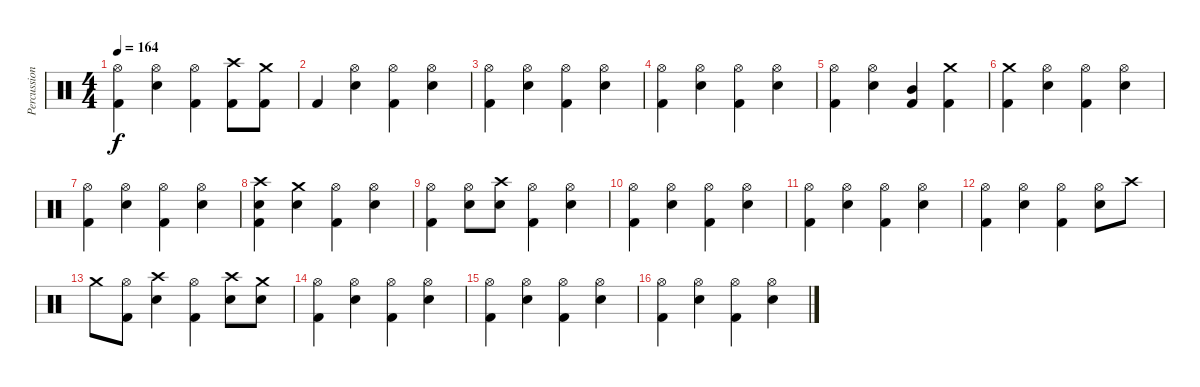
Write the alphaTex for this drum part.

\track ("Percussions" "Percussion") {instrument percussion}
\staff {score}
\articulation defaults
\ts (4 4)
\tempo 164
\clef neutral
\ks c
("Hi-Hat (open)" "Kick (hit) 2").4{dy f} ("Hi-Hat (open)" "Snare (hit) 2").4 ("Hi-Hat (open)" "Kick (hit) 2").4 ("Crash high (hit)" "Kick (hit) 2").8 ("Crash medium (hit)" "Kick (hit) 2").8 |
"Kick (hit) 2".4 ("Hi-Hat (open)" "Snare (hit) 2").4 ("Hi-Hat (open)" "Kick (hit) 2").4 ("Hi-Hat (open)" "Snare (hit) 2").4 |
("Hi-Hat (open)" "Kick (hit) 2").4 ("Hi-Hat (open)" "Snare (hit) 2").4 ("Hi-Hat (open)" "Kick (hit) 2").4 ("Hi-Hat (open)" "Snare (hit) 2").4 |
("Hi-Hat (open)" "Kick (hit) 2").4 ("Hi-Hat (open)" "Snare (hit) 2").4 ("Hi-Hat (open)" "Kick (hit) 2").4 ("Hi-Hat (open)" "Snare (hit) 2").4 |
("Hi-Hat (open)" "Kick (hit) 2").4 ("Hi-Hat (open)" "Snare (hit) 2").4 ("Mid Tom (hit)" "Kick (hit) 2").4 ("Crash medium (hit)" "Kick (hit) 2").4 |
("Crash medium (hit)" "Kick (hit) 2").4 ("Hi-Hat (open)" "Snare (hit) 2").4 ("Hi-Hat (open)" "Kick (hit) 2").4 ("Hi-Hat (open)" "Snare (hit) 2").4 |
("Hi-Hat (open)" "Kick (hit) 2").4 ("Hi-Hat (open)" "Snare (hit) 2").4 ("Hi-Hat (open)" "Kick (hit) 2").4 ("Hi-Hat (open)" "Snare (hit) 2").4 |
("Crash high (hit)" "Snare (hit) 2" "Kick (hit) 2").4 ("Crash medium (hit)" "Snare (hit) 2").4 ("Hi-Hat (open)" "Kick (hit) 2").4 ("Hi-Hat (open)" "Snare (hit) 2").4 |
("Hi-Hat (open)" "Kick (hit) 2").4 ("Hi-Hat (open)" "Snare (hit) 2").8 ("Crash high (hit)" "Snare (hit) 2").8 ("Hi-Hat (open)" "Kick (hit) 2").4 ("Hi-Hat (open)" "Snare (hit) 2").4 |
("Hi-Hat (open)" "Kick (hit) 2").4 ("Hi-Hat (open)" "Snare (hit) 2").4 ("Hi-Hat (open)" "Kick (hit) 2").4 ("Hi-Hat (open)" "Snare (hit) 2").4 |
("Hi-Hat (open)" "Kick (hit) 2").4 ("Hi-Hat (open)" "Snare (hit) 2").4 ("Hi-Hat (open)" "Kick (hit) 2").4 ("Hi-Hat (open)" "Snare (hit) 2").4 |
("Hi-Hat (open)" "Kick (hit) 2").4 ("Hi-Hat (open)" "Snare (hit) 2").4 ("Hi-Hat (open)" "Kick (hit) 2").4 ("Hi-Hat (open)" "Snare (hit) 2").8 "Crash high (hit)".8 |
"Crash medium (hit)".8 ("Hi-Hat (open)" "Kick (hit) 2").8 ("Crash high (hit)" "Snare (hit) 2").4 ("Hi-Hat (open)" "Kick (hit) 2").4 ("Crash high (hit)" "Snare (hit) 2").8 ("Crash medium (hit)" "Snare (hit) 2").8 |
("Hi-Hat (open)" "Kick (hit) 2").4 ("Hi-Hat (open)" "Snare (hit) 2").4 ("Hi-Hat (open)" "Kick (hit) 2").4 ("Hi-Hat (open)" "Snare (hit) 2").4 |
("Hi-Hat (open)" "Kick (hit) 2").4 ("Hi-Hat (open)" "Snare (hit) 2").4 ("Hi-Hat (open)" "Kick (hit) 2").4 ("Hi-Hat (open)" "Snare (hit) 2").4 |
("Hi-Hat (open)" "Kick (hit) 2").4 ("Hi-Hat (open)" "Snare (hit) 2").4 ("Hi-Hat (open)" "Kick (hit) 2").4 ("Hi-Hat (open)" "Snare (hit) 2").4
